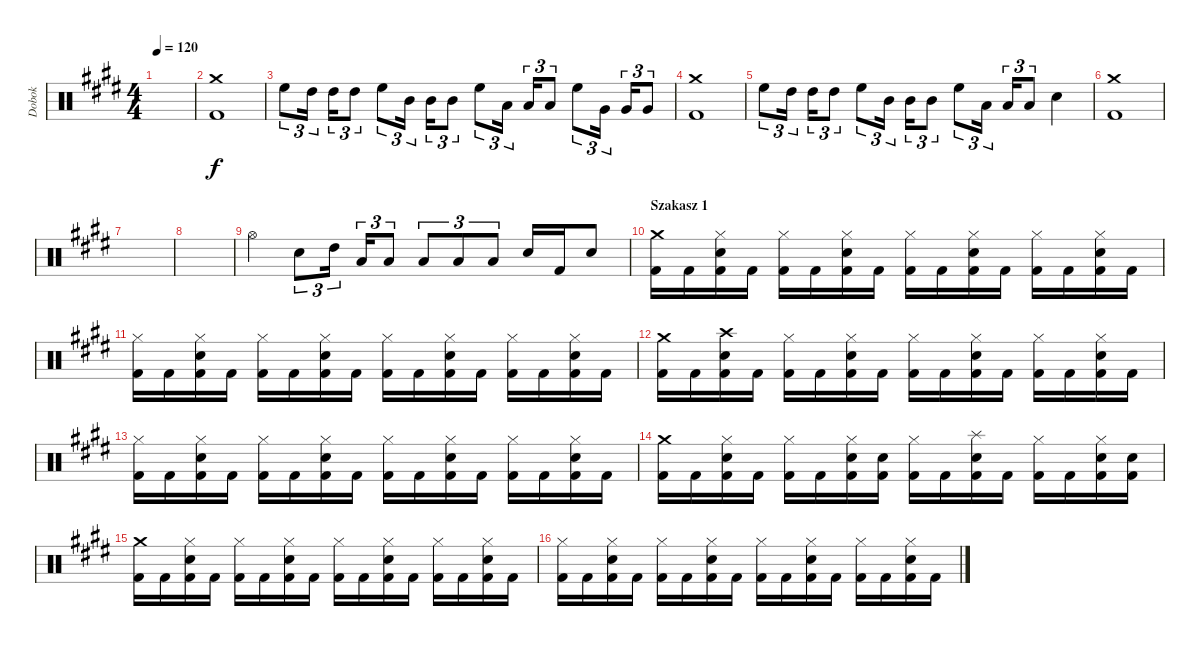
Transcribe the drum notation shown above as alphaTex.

\track ("Dobok" "Dobok") {instrument percussion}
\staff {score}
\articulation defaults
\ts (4 4)
\tempo 120
\clef neutral
\ks c#minor
|
("Crash medium (hit)" "Kick (hit) 2").1 |
"High Floor Tom (hit)".8{tu (3 2)} "High Tom (hit)".16{tu (3 2)} "High Tom (hit)".16{tu (3 2)} "High Tom (hit)".8{tu (3 2)} "High Floor Tom (hit)".8{tu (3 2)} "Mid Tom (hit)".16{tu (3 2)} "Mid Tom (hit)".16{tu (3 2)} "Mid Tom (hit)".8{tu (3 2)} "High Floor Tom (hit)".8{tu (3 2)} "Low Tom (hit)".16{tu (3 2)} "Low Tom (hit)".16{tu (3 2)} "Low Tom (hit)".8{tu (3 2)} "High Floor Tom (hit)".8{tu (3 2)} "Very Low Tom (hit)".16{tu (3 2)} "Very Low Tom (hit)".16{tu (3 2)} "Very Low Tom (hit)".8{tu (3 2)} |
("Crash medium (hit)" "Kick (hit) 2").1 |
"High Floor Tom (hit)".8{tu (3 2)} "High Tom (hit)".16{tu (3 2)} "High Tom (hit)".16{tu (3 2)} "High Tom (hit)".8{tu (3 2)} "High Floor Tom (hit)".8{tu (3 2)} "Mid Tom (hit)".16{tu (3 2)} "Mid Tom (hit)".16{tu (3 2)} "Mid Tom (hit)".8{tu (3 2)} "High Floor Tom (hit)".8{tu (3 2)} "Low Floor Tom (hit)".16{tu (3 2)} "Low Floor Tom (hit)".16{tu (3 2)} "Low Floor Tom (hit)".8{tu (3 2)} "Snare (hit) 2".4 |
("Crash medium (hit)" "Kick (hit) 2").1 |
|
|
"Hi-Hat (open)".4 "Snare (hit) 2".8{tu (3 2)} "High Tom (hit)".16{tu (3 2)} "Low Tom (hit)".16{tu (3 2)} "Low Tom (hit)".8{tu (3 2)} "Low Tom (hit)".8{tu (3 2)} "Low Tom (hit)".8{tu (3 2)} "Low Tom (hit)".8{tu (3 2)} "Snare (hit) 2".16 "Kick (hit) 2".16 "Snare (hit) 2".8 |
\section ("" "Szakasz 1")
("Crash medium (hit)" "Kick (hit) 2").16 "Kick (hit) 2".16 ("Hi-Hat (closed)" "Snare (hit) 2" "Kick (hit) 2").16 "Kick (hit) 2".16 ("Hi-Hat (closed)" "Kick (hit) 2").16 "Kick (hit) 2".16 ("Hi-Hat (closed)" "Snare (hit) 2" "Kick (hit) 2").16 "Kick (hit) 2".16 ("Hi-Hat (closed)" "Kick (hit) 2").16 "Kick (hit) 2".16 ("Hi-Hat (closed)" "Snare (hit) 2" "Kick (hit) 2").16 "Kick (hit) 2".16 ("Hi-Hat (closed)" "Kick (hit) 2").16 "Kick (hit) 2".16 ("Hi-Hat (closed)" "Snare (hit) 2" "Kick (hit) 2").16 "Kick (hit) 2".16 |
("Hi-Hat (closed)" "Kick (hit) 2").16 "Kick (hit) 2".16 ("Hi-Hat (closed)" "Snare (hit) 2" "Kick (hit) 2").16 "Kick (hit) 2".16 ("Hi-Hat (closed)" "Kick (hit) 2").16 "Kick (hit) 2".16 ("Hi-Hat (closed)" "Snare (hit) 2" "Kick (hit) 2").16 "Kick (hit) 2".16 ("Hi-Hat (closed)" "Kick (hit) 2").16 "Kick (hit) 2".16 ("Hi-Hat (closed)" "Snare (hit) 2" "Kick (hit) 2").16 "Kick (hit) 2".16 ("Hi-Hat (closed)" "Kick (hit) 2").16 "Kick (hit) 2".16 ("Hi-Hat (closed)" "Snare (hit) 2" "Kick (hit) 2").16 "Kick (hit) 2".16 |
("Crash medium (hit)" "Kick (hit) 2").16 "Kick (hit) 2".16 ("Crash high (hit)" "Snare (hit) 2" "Kick (hit) 2").16 "Kick (hit) 2".16 ("Hi-Hat (closed)" "Kick (hit) 2").16 "Kick (hit) 2".16 ("Hi-Hat (closed)" "Snare (hit) 2" "Kick (hit) 2").16 "Kick (hit) 2".16 ("Hi-Hat (closed)" "Kick (hit) 2").16 "Kick (hit) 2".16 ("Hi-Hat (closed)" "Snare (hit) 2" "Kick (hit) 2").16 "Kick (hit) 2".16 ("Hi-Hat (closed)" "Kick (hit) 2").16 "Kick (hit) 2".16 ("Hi-Hat (closed)" "Snare (hit) 2" "Kick (hit) 2").16 "Kick (hit) 2".16 |
("Hi-Hat (closed)" "Kick (hit) 2").16 "Kick (hit) 2".16 ("Hi-Hat (closed)" "Snare (hit) 2" "Kick (hit) 2").16 "Kick (hit) 2".16 ("Hi-Hat (closed)" "Kick (hit) 2").16 "Kick (hit) 2".16 ("Hi-Hat (closed)" "Snare (hit) 2" "Kick (hit) 2").16 "Kick (hit) 2".16 ("Hi-Hat (closed)" "Kick (hit) 2").16 "Kick (hit) 2".16 ("Hi-Hat (closed)" "Snare (hit) 2" "Kick (hit) 2").16 "Kick (hit) 2".16 ("Hi-Hat (closed)" "Kick (hit) 2").16 "Kick (hit) 2".16 ("Hi-Hat (closed)" "Snare (hit) 2" "Kick (hit) 2").16 "Kick (hit) 2".16 |
("Crash medium (hit)" "Kick (hit) 2").16 "Kick (hit) 2".16 ("Hi-Hat (closed)" "Snare (hit) 2" "Kick (hit) 2").16 "Kick (hit) 2".16 ("Hi-Hat (closed)" "Kick (hit) 2").16 "Kick (hit) 2".16 ("Hi-Hat (closed)" "Snare (hit) 2" "Kick (hit) 2").16 ("Snare (hit) 2" "Kick (hit) 2").16 ("Hi-Hat (closed)" "Kick (hit) 2").16 "Kick (hit) 2".16 ("Splash (hit)" "Snare (hit) 2" "Kick (hit) 2").16 "Kick (hit) 2".16 ("Hi-Hat (closed)" "Kick (hit) 2").16 "Kick (hit) 2".16 ("Hi-Hat (closed)" "Snare (hit) 2" "Kick (hit) 2").16 ("Snare (hit) 2" "Kick (hit) 2").16 |
("Crash medium (hit)" "Kick (hit) 2").16 "Kick (hit) 2".16 ("Hi-Hat (closed)" "Snare (hit) 2" "Kick (hit) 2").16 "Kick (hit) 2".16 ("Hi-Hat (closed)" "Kick (hit) 2").16 "Kick (hit) 2".16 ("Hi-Hat (closed)" "Snare (hit) 2" "Kick (hit) 2").16 "Kick (hit) 2".16 ("Hi-Hat (closed)" "Kick (hit) 2").16 "Kick (hit) 2".16 ("Hi-Hat (closed)" "Snare (hit) 2" "Kick (hit) 2").16 "Kick (hit) 2".16 ("Hi-Hat (closed)" "Kick (hit) 2").16 "Kick (hit) 2".16 ("Hi-Hat (closed)" "Snare (hit) 2" "Kick (hit) 2").16 "Kick (hit) 2".16 |
("Hi-Hat (closed)" "Kick (hit) 2").16 "Kick (hit) 2".16 ("Hi-Hat (closed)" "Snare (hit) 2" "Kick (hit) 2").16 "Kick (hit) 2".16 ("Hi-Hat (closed)" "Kick (hit) 2").16 "Kick (hit) 2".16 ("Hi-Hat (closed)" "Snare (hit) 2" "Kick (hit) 2").16 "Kick (hit) 2".16 ("Hi-Hat (closed)" "Kick (hit) 2").16 "Kick (hit) 2".16 ("Hi-Hat (closed)" "Snare (hit) 2" "Kick (hit) 2").16 "Kick (hit) 2".16 ("Hi-Hat (closed)" "Kick (hit) 2").16 "Kick (hit) 2".16 ("Hi-Hat (closed)" "Snare (hit) 2" "Kick (hit) 2").16 "Kick (hit) 2".16
